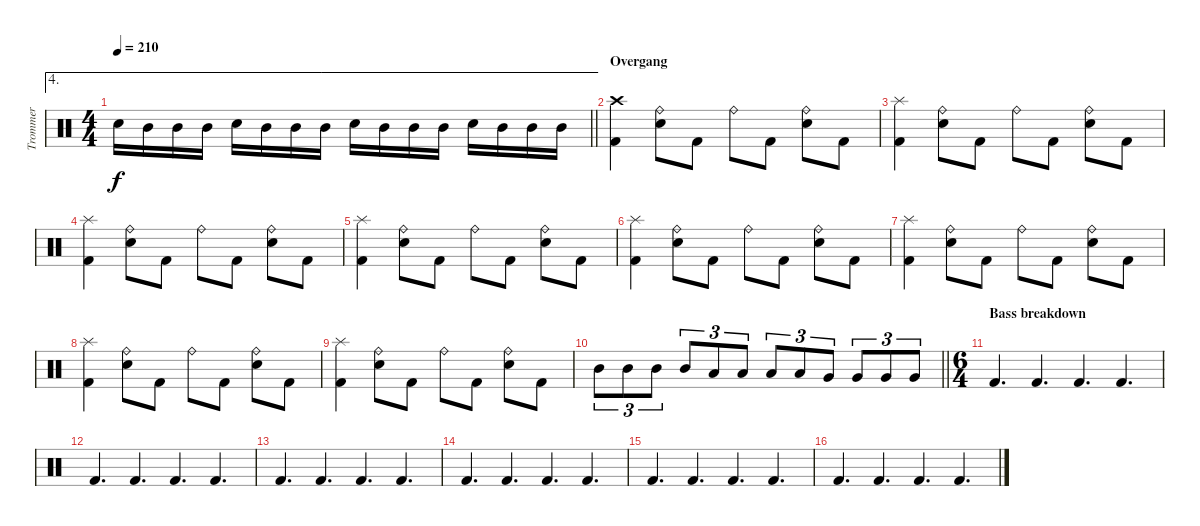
\track ("Trommer" "Trommer") {instrument percussion}
\staff {score}
\articulation defaults
\ae 4
\ts (4 4)
\tempo 210
\clef neutral
\barLineRight lightlight
\ks c "Snare (hit) 2".16{dy f} "Mid Tom (hit)".16 "Mid Tom (hit)".16 "Mid Tom (hit)".16 "Snare (hit) 2".16 "Mid Tom (hit)".16 "Mid Tom (hit)".16 "Mid Tom (hit)".16 "Snare (hit) 2".16 "Mid Tom (hit)".16 "Mid Tom (hit)".16 "Mid Tom (hit)".16 "Snare (hit) 2".16 "Mid Tom (hit)".16 "Mid Tom (hit)".16 "Mid Tom (hit)".16
|
\section ("" "Overgang")
("Crash high (hit)" "Kick (hit) 2").4 ("Ride (bell)" "Snare (hit) 2").8 "Kick (hit) 2".8 "Ride (bell)".8 "Kick (hit) 2".8 ("Ride (bell)" "Snare (hit) 2").8 "Kick (hit) 2".8 |
("Splash (hit)" "Kick (hit) 2").4 ("Ride (bell)" "Snare (hit) 2").8 "Kick (hit) 2".8 "Ride (bell)".8 "Kick (hit) 2".8 ("Ride (bell)" "Snare (hit) 2").8 "Kick (hit) 2".8 |
("Splash (hit)" "Kick (hit) 2").4 ("Ride (bell)" "Snare (hit) 2").8 "Kick (hit) 2".8 "Ride (bell)".8 "Kick (hit) 2".8 ("Ride (bell)" "Snare (hit) 2").8 "Kick (hit) 2".8 |
("Splash (hit)" "Kick (hit) 2").4 ("Ride (bell)" "Snare (hit) 2").8 "Kick (hit) 2".8 "Ride (bell)".8 "Kick (hit) 2".8 ("Ride (bell)" "Snare (hit) 2").8 "Kick (hit) 2".8 |
("Splash (hit)" "Kick (hit) 2").4 ("Ride (bell)" "Snare (hit) 2").8 "Kick (hit) 2".8 "Ride (bell)".8 "Kick (hit) 2".8 ("Ride (bell)" "Snare (hit) 2").8 "Kick (hit) 2".8 |
("Splash (hit)" "Kick (hit) 2").4 ("Ride (bell)" "Snare (hit) 2").8 "Kick (hit) 2".8 "Ride (bell)".8 "Kick (hit) 2".8 ("Ride (bell)" "Snare (hit) 2").8 "Kick (hit) 2".8 |
("Splash (hit)" "Kick (hit) 2").4 ("Ride (bell)" "Snare (hit) 2").8 "Kick (hit) 2".8 "Ride (bell)".8 "Kick (hit) 2".8 ("Ride (bell)" "Snare (hit) 2").8 "Kick (hit) 2".8 |
("Splash (hit)" "Kick (hit) 2").4 ("Ride (bell)" "Snare (hit) 2").8 "Kick (hit) 2".8 "Ride (bell)".8 "Kick (hit) 2".8 ("Ride (bell)" "Snare (hit) 2").8 "Kick (hit) 2".8 |
\barLineRight lightlight "Mid Tom (hit)".8{tu (3 2)} "Mid Tom (hit)".8{tu (3 2)} "Mid Tom (hit)".8{tu (3 2)} "Mid Tom (hit)".8{tu (3 2)} "Low Tom (hit)".8{tu (3 2)} "Low Tom (hit)".8{tu (3 2)} "Low Tom (hit)".8{tu (3 2)} "Low Tom (hit)".8{tu (3 2)} "Very Low Tom (hit)".8{tu (3 2)} "Very Low Tom (hit)".8{tu (3 2)} "Very Low Tom (hit)".8{tu (3 2)} "Very Low Tom (hit)".8{tu (3 2)}
|
\ts (6 4)
\section ("" "Bass breakdown")
"Kick (hit) 2".4{d} "Kick (hit) 2".4{d} "Kick (hit) 2".4{d} "Kick (hit) 2".4{d} |
"Kick (hit) 2".4{d} "Kick (hit) 2".4{d} "Kick (hit) 2".4{d} "Kick (hit) 2".4{d} |
"Kick (hit) 2".4{d} "Kick (hit) 2".4{d} "Kick (hit) 2".4{d} "Kick (hit) 2".4{d} |
"Kick (hit) 2".4{d} "Kick (hit) 2".4{d} "Kick (hit) 2".4{d} "Kick (hit) 2".4{d} |
"Kick (hit) 2".4{d} "Kick (hit) 2".4{d} "Kick (hit) 2".4{d} "Kick (hit) 2".4{d} |
"Kick (hit) 2".4{d} "Kick (hit) 2".4{d} "Kick (hit) 2".4{d} "Kick (hit) 2".4{d}
